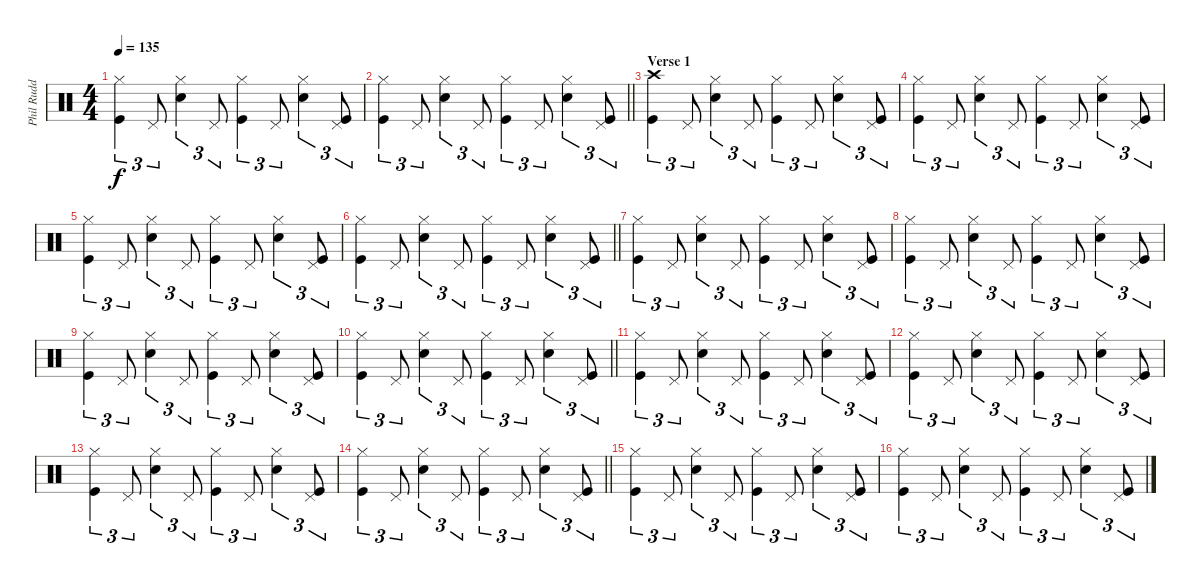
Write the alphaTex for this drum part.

\track ("Phil Rudd" "Phil Rudd") {instrument percussion}
\staff {score}
\articulation defaults
\ts (4 4)
\tempo 135
\clef neutral
\ks c
("Hi-Hat (closed)" "Kick (hit)").4{tu (3 2) dy f} "Pedal Hi-Hat (hit)".8{tu (3 2)} ("Hi-Hat (closed)" "Snare (hit) 2").4{tu (3 2)} "Pedal Hi-Hat (hit)".8{tu (3 2)} ("Hi-Hat (closed)" "Kick (hit)").4{tu (3 2)} "Pedal Hi-Hat (hit)".8{tu (3 2)} ("Hi-Hat (closed)" "Snare (hit) 2").4{tu (3 2)} ("Pedal Hi-Hat (hit)" "Kick (hit)").8{tu (3 2)} |
\barLineRight lightlight
("Hi-Hat (closed)" "Kick (hit)").4{tu (3 2)} "Pedal Hi-Hat (hit)".8{tu (3 2)} ("Hi-Hat (closed)" "Snare (hit) 2").4{tu (3 2)} "Pedal Hi-Hat (hit)".8{tu (3 2)} ("Hi-Hat (closed)" "Kick (hit)").4{tu (3 2)} "Pedal Hi-Hat (hit)".8{tu (3 2)} ("Hi-Hat (closed)" "Snare (hit) 2").4{tu (3 2)} ("Pedal Hi-Hat (hit)" "Kick (hit)").8{tu (3 2)} |
\section ("" "Verse 1")
("Crash high (hit)" "Kick (hit)").4{tu (3 2)} "Pedal Hi-Hat (hit)".8{tu (3 2)} ("Hi-Hat (closed)" "Snare (hit) 2").4{tu (3 2)} "Pedal Hi-Hat (hit)".8{tu (3 2)} ("Hi-Hat (closed)" "Kick (hit)").4{tu (3 2)} "Pedal Hi-Hat (hit)".8{tu (3 2)} ("Hi-Hat (closed)" "Snare (hit) 2").4{tu (3 2)} ("Pedal Hi-Hat (hit)" "Kick (hit)").8{tu (3 2)} |
("Hi-Hat (closed)" "Kick (hit)").4{tu (3 2)} "Pedal Hi-Hat (hit)".8{tu (3 2)} ("Hi-Hat (closed)" "Snare (hit) 2").4{tu (3 2)} "Pedal Hi-Hat (hit)".8{tu (3 2)} ("Hi-Hat (closed)" "Kick (hit)").4{tu (3 2)} "Pedal Hi-Hat (hit)".8{tu (3 2)} ("Hi-Hat (closed)" "Snare (hit) 2").4{tu (3 2)} ("Pedal Hi-Hat (hit)" "Kick (hit)").8{tu (3 2)} |
("Hi-Hat (closed)" "Kick (hit)").4{tu (3 2)} "Pedal Hi-Hat (hit)".8{tu (3 2)} ("Hi-Hat (closed)" "Snare (hit) 2").4{tu (3 2)} "Pedal Hi-Hat (hit)".8{tu (3 2)} ("Hi-Hat (closed)" "Kick (hit)").4{tu (3 2)} "Pedal Hi-Hat (hit)".8{tu (3 2)} ("Hi-Hat (closed)" "Snare (hit) 2").4{tu (3 2)} ("Pedal Hi-Hat (hit)" "Kick (hit)").8{tu (3 2)} |
\barLineRight lightlight
("Hi-Hat (closed)" "Kick (hit)").4{tu (3 2)} "Pedal Hi-Hat (hit)".8{tu (3 2)} ("Hi-Hat (closed)" "Snare (hit) 2").4{tu (3 2)} "Pedal Hi-Hat (hit)".8{tu (3 2)} ("Hi-Hat (closed)" "Kick (hit)").4{tu (3 2)} "Pedal Hi-Hat (hit)".8{tu (3 2)} ("Hi-Hat (closed)" "Snare (hit) 2").4{tu (3 2)} ("Pedal Hi-Hat (hit)" "Kick (hit)").8{tu (3 2)} |
("Hi-Hat (closed)" "Kick (hit)").4{tu (3 2)} "Pedal Hi-Hat (hit)".8{tu (3 2)} ("Hi-Hat (closed)" "Snare (hit) 2").4{tu (3 2)} "Pedal Hi-Hat (hit)".8{tu (3 2)} ("Hi-Hat (closed)" "Kick (hit)").4{tu (3 2)} "Pedal Hi-Hat (hit)".8{tu (3 2)} ("Hi-Hat (closed)" "Snare (hit) 2").4{tu (3 2)} ("Pedal Hi-Hat (hit)" "Kick (hit)").8{tu (3 2)} |
("Hi-Hat (closed)" "Kick (hit)").4{tu (3 2)} "Pedal Hi-Hat (hit)".8{tu (3 2)} ("Hi-Hat (closed)" "Snare (hit) 2").4{tu (3 2)} "Pedal Hi-Hat (hit)".8{tu (3 2)} ("Hi-Hat (closed)" "Kick (hit)").4{tu (3 2)} "Pedal Hi-Hat (hit)".8{tu (3 2)} ("Hi-Hat (closed)" "Snare (hit) 2").4{tu (3 2)} ("Pedal Hi-Hat (hit)" "Kick (hit)").8{tu (3 2)} |
("Hi-Hat (closed)" "Kick (hit)").4{tu (3 2)} "Pedal Hi-Hat (hit)".8{tu (3 2)} ("Hi-Hat (closed)" "Snare (hit) 2").4{tu (3 2)} "Pedal Hi-Hat (hit)".8{tu (3 2)} ("Hi-Hat (closed)" "Kick (hit)").4{tu (3 2)} "Pedal Hi-Hat (hit)".8{tu (3 2)} ("Hi-Hat (closed)" "Snare (hit) 2").4{tu (3 2)} ("Pedal Hi-Hat (hit)" "Kick (hit)").8{tu (3 2)} |
\barLineRight lightlight
("Hi-Hat (closed)" "Kick (hit)").4{tu (3 2)} "Pedal Hi-Hat (hit)".8{tu (3 2)} ("Hi-Hat (closed)" "Snare (hit) 2").4{tu (3 2)} "Pedal Hi-Hat (hit)".8{tu (3 2)} ("Hi-Hat (closed)" "Kick (hit)").4{tu (3 2)} "Pedal Hi-Hat (hit)".8{tu (3 2)} ("Hi-Hat (closed)" "Snare (hit) 2").4{tu (3 2)} ("Pedal Hi-Hat (hit)" "Kick (hit)").8{tu (3 2)} |
("Hi-Hat (closed)" "Kick (hit)").4{tu (3 2)} "Pedal Hi-Hat (hit)".8{tu (3 2)} ("Hi-Hat (closed)" "Snare (hit) 2").4{tu (3 2)} "Pedal Hi-Hat (hit)".8{tu (3 2)} ("Hi-Hat (closed)" "Kick (hit)").4{tu (3 2)} "Pedal Hi-Hat (hit)".8{tu (3 2)} ("Hi-Hat (closed)" "Snare (hit) 2").4{tu (3 2)} ("Pedal Hi-Hat (hit)" "Kick (hit)").8{tu (3 2)} |
("Hi-Hat (closed)" "Kick (hit)").4{tu (3 2)} "Pedal Hi-Hat (hit)".8{tu (3 2)} ("Hi-Hat (closed)" "Snare (hit) 2").4{tu (3 2)} "Pedal Hi-Hat (hit)".8{tu (3 2)} ("Hi-Hat (closed)" "Kick (hit)").4{tu (3 2)} "Pedal Hi-Hat (hit)".8{tu (3 2)} ("Hi-Hat (closed)" "Snare (hit) 2").4{tu (3 2)} ("Pedal Hi-Hat (hit)" "Kick (hit)").8{tu (3 2)} |
("Hi-Hat (closed)" "Kick (hit)").4{tu (3 2)} "Pedal Hi-Hat (hit)".8{tu (3 2)} ("Hi-Hat (closed)" "Snare (hit) 2").4{tu (3 2)} "Pedal Hi-Hat (hit)".8{tu (3 2)} ("Hi-Hat (closed)" "Kick (hit)").4{tu (3 2)} "Pedal Hi-Hat (hit)".8{tu (3 2)} ("Hi-Hat (closed)" "Snare (hit) 2").4{tu (3 2)} ("Pedal Hi-Hat (hit)" "Kick (hit)").8{tu (3 2)} |
\barLineRight lightlight
("Hi-Hat (closed)" "Kick (hit)").4{tu (3 2)} "Pedal Hi-Hat (hit)".8{tu (3 2)} ("Hi-Hat (closed)" "Snare (hit) 2").4{tu (3 2)} "Pedal Hi-Hat (hit)".8{tu (3 2)} ("Hi-Hat (closed)" "Kick (hit)").4{tu (3 2)} "Pedal Hi-Hat (hit)".8{tu (3 2)} ("Hi-Hat (closed)" "Snare (hit) 2").4{tu (3 2)} ("Pedal Hi-Hat (hit)" "Kick (hit)").8{tu (3 2)} |
("Hi-Hat (closed)" "Kick (hit)").4{tu (3 2)} "Pedal Hi-Hat (hit)".8{tu (3 2)} ("Hi-Hat (closed)" "Snare (hit) 2").4{tu (3 2)} "Pedal Hi-Hat (hit)".8{tu (3 2)} ("Hi-Hat (closed)" "Kick (hit)").4{tu (3 2)} "Pedal Hi-Hat (hit)".8{tu (3 2)} ("Hi-Hat (closed)" "Snare (hit) 2").4{tu (3 2)} ("Pedal Hi-Hat (hit)" "Kick (hit)").8{tu (3 2)} |
("Hi-Hat (closed)" "Kick (hit)").4{tu (3 2)} "Pedal Hi-Hat (hit)".8{tu (3 2)} ("Hi-Hat (closed)" "Snare (hit) 2").4{tu (3 2)} "Pedal Hi-Hat (hit)".8{tu (3 2)} ("Hi-Hat (closed)" "Kick (hit)").4{tu (3 2)} "Pedal Hi-Hat (hit)".8{tu (3 2)} ("Hi-Hat (closed)" "Snare (hit) 2").4{tu (3 2)} ("Pedal Hi-Hat (hit)" "Kick (hit)").8{tu (3 2)}
